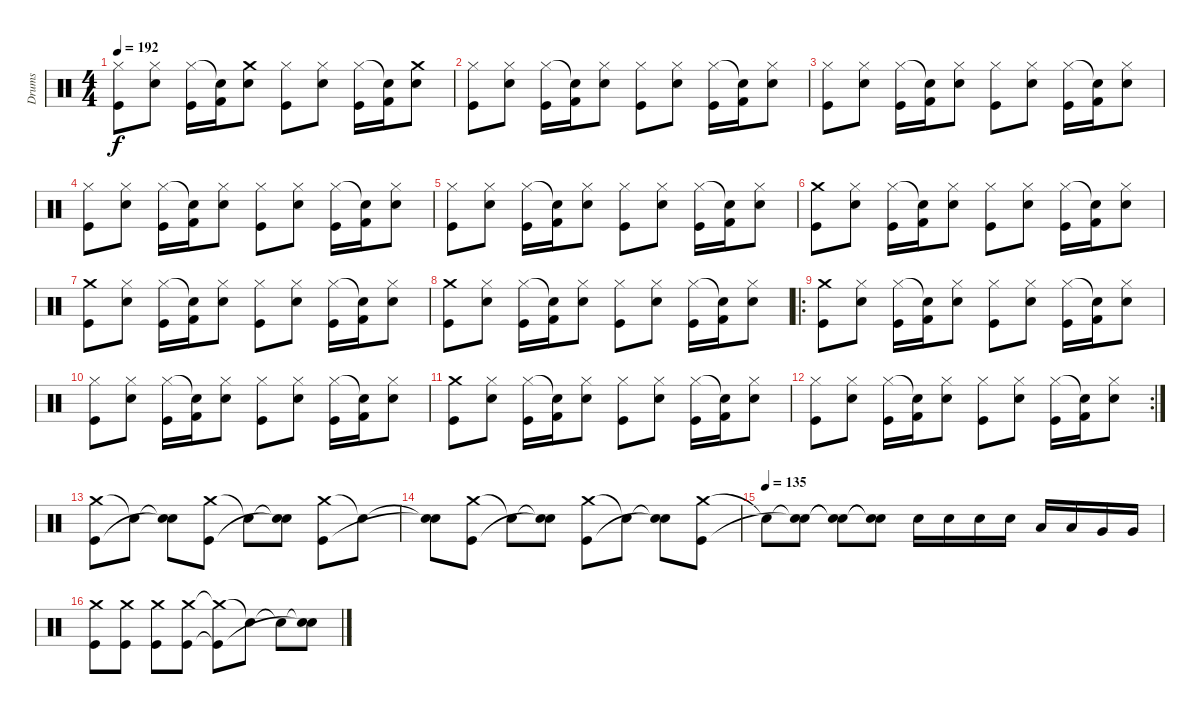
\track ("Drums" "Drums") {instrument percussion}
\staff {score}
\articulation defaults
\ts (4 4)
\tempo 192
\clef neutral
\ks c
("Hi-Hat (closed)" "Kick (hit)").8{dy f} ("Hi-Hat (closed)" "Electric Snare (hit)").8 ("Hi-Hat (closed)" "Kick (hit)").16 ("Snare (hit)"{t} "Kick (hit) 2").16 ("Crash medium (hit)" "Electric Snare (hit)").8 ("Hi-Hat (closed)" "Kick (hit)").8 ("Hi-Hat (closed)" "Electric Snare (hit)").8 ("Hi-Hat (closed)" "Kick (hit)").16 ("Snare (hit)"{t} "Kick (hit) 2").16 ("Crash medium (hit)" "Electric Snare (hit)").8 |
("Hi-Hat (closed)" "Kick (hit)").8 ("Hi-Hat (closed)" "Electric Snare (hit)").8 ("Hi-Hat (closed)" "Kick (hit)").16 ("Snare (hit)"{t} "Kick (hit) 2").16 ("Hi-Hat (closed)" "Electric Snare (hit)").8 ("Hi-Hat (closed)" "Kick (hit)").8 ("Hi-Hat (closed)" "Electric Snare (hit)").8 ("Hi-Hat (closed)" "Kick (hit)").16 ("Snare (hit)"{t} "Kick (hit) 2").16 ("Hi-Hat (closed)" "Electric Snare (hit)").8 |
("Hi-Hat (closed)" "Kick (hit)").8 ("Hi-Hat (closed)" "Electric Snare (hit)").8 ("Hi-Hat (closed)" "Kick (hit)").16 ("Snare (hit)"{t} "Kick (hit) 2").16 ("Hi-Hat (closed)" "Electric Snare (hit)").8 ("Hi-Hat (closed)" "Kick (hit)").8 ("Hi-Hat (closed)" "Electric Snare (hit)").8 ("Hi-Hat (closed)" "Kick (hit)").16 ("Snare (hit)"{t} "Kick (hit) 2").16 ("Hi-Hat (closed)" "Electric Snare (hit)").8 |
("Hi-Hat (closed)" "Kick (hit)").8 ("Hi-Hat (closed)" "Electric Snare (hit)").8 ("Hi-Hat (closed)" "Kick (hit)").16 ("Snare (hit)"{t} "Kick (hit) 2").16 ("Hi-Hat (closed)" "Electric Snare (hit)").8 ("Hi-Hat (closed)" "Kick (hit)").8 ("Hi-Hat (closed)" "Electric Snare (hit)").8 ("Hi-Hat (closed)" "Kick (hit)").16 ("Snare (hit)"{t} "Kick (hit) 2").16 ("Hi-Hat (closed)" "Electric Snare (hit)").8 |
("Hi-Hat (closed)" "Kick (hit)").8 ("Hi-Hat (closed)" "Electric Snare (hit)").8 ("Hi-Hat (closed)" "Kick (hit)").16 ("Snare (hit)"{t} "Kick (hit) 2").16 ("Hi-Hat (closed)" "Electric Snare (hit)").8 ("Hi-Hat (closed)" "Kick (hit)").8 ("Hi-Hat (closed)" "Electric Snare (hit)").8 ("Hi-Hat (closed)" "Kick (hit)").16 ("Snare (hit)"{t} "Kick (hit) 2").16 ("Hi-Hat (closed)" "Electric Snare (hit)").8 |
("Crash medium (hit)" "Kick (hit)").8 ("Hi-Hat (closed)" "Electric Snare (hit)").8 ("Hi-Hat (closed)" "Kick (hit)").16 ("Snare (hit)"{t} "Kick (hit) 2").16 ("Hi-Hat (closed)" "Electric Snare (hit)").8 ("Hi-Hat (closed)" "Kick (hit)").8 ("Hi-Hat (closed)" "Electric Snare (hit)").8 ("Hi-Hat (closed)" "Kick (hit)").16 ("Snare (hit)"{t} "Kick (hit) 2").16 ("Hi-Hat (closed)" "Electric Snare (hit)").8 |
("Crash medium (hit)" "Kick (hit)").8 ("Hi-Hat (closed)" "Electric Snare (hit)").8 ("Hi-Hat (closed)" "Kick (hit)").16 ("Snare (hit)"{t} "Kick (hit) 2").16 ("Hi-Hat (closed)" "Electric Snare (hit)").8 ("Hi-Hat (closed)" "Kick (hit)").8 ("Hi-Hat (closed)" "Electric Snare (hit)").8 ("Hi-Hat (closed)" "Kick (hit)").16 ("Snare (hit)"{t} "Kick (hit) 2").16 ("Hi-Hat (closed)" "Electric Snare (hit)").8 |
("Crash medium (hit)" "Kick (hit)").8 ("Hi-Hat (closed)" "Electric Snare (hit)").8 ("Hi-Hat (closed)" "Kick (hit)").16 ("Snare (hit)"{t} "Kick (hit) 2").16 ("Hi-Hat (closed)" "Electric Snare (hit)").8 ("Hi-Hat (closed)" "Kick (hit)").8 ("Hi-Hat (closed)" "Electric Snare (hit)").8 ("Hi-Hat (closed)" "Kick (hit)").16 ("Snare (hit)"{t} "Kick (hit) 2").16 ("Hi-Hat (closed)" "Electric Snare (hit)").8 |
\ro
("Crash medium (hit)" "Kick (hit)").8 ("Hi-Hat (closed)" "Electric Snare (hit)").8 ("Hi-Hat (closed)" "Kick (hit)").16 ("Snare (hit)"{t} "Kick (hit) 2").16 ("Hi-Hat (closed)" "Electric Snare (hit)").8 ("Hi-Hat (closed)" "Kick (hit)").8 ("Hi-Hat (closed)" "Electric Snare (hit)").8 ("Hi-Hat (closed)" "Kick (hit)").16 ("Snare (hit)"{t} "Kick (hit) 2").16 ("Hi-Hat (closed)" "Electric Snare (hit)").8 |
("Hi-Hat (closed)" "Kick (hit)").8 ("Hi-Hat (closed)" "Electric Snare (hit)").8 ("Hi-Hat (closed)" "Kick (hit)").16 ("Snare (hit)"{t} "Kick (hit) 2").16 ("Hi-Hat (closed)" "Electric Snare (hit)").8 ("Hi-Hat (closed)" "Kick (hit)").8 ("Hi-Hat (closed)" "Electric Snare (hit)").8 ("Hi-Hat (closed)" "Kick (hit)").16 ("Snare (hit)"{t} "Kick (hit) 2").16 ("Hi-Hat (closed)" "Electric Snare (hit)").8 |
("Crash medium (hit)" "Kick (hit)").8 ("Hi-Hat (closed)" "Electric Snare (hit)").8 ("Hi-Hat (closed)" "Kick (hit)").16 ("Snare (hit)"{t} "Kick (hit) 2").16 ("Hi-Hat (closed)" "Electric Snare (hit)").8 ("Hi-Hat (closed)" "Kick (hit)").8 ("Hi-Hat (closed)" "Electric Snare (hit)").8 ("Hi-Hat (closed)" "Kick (hit)").16 ("Snare (hit)"{t} "Kick (hit) 2").16 ("Hi-Hat (closed)" "Electric Snare (hit)").8 |
\rc 2
("Hi-Hat (closed)" "Kick (hit)").8 ("Hi-Hat (closed)" "Electric Snare (hit)").8 ("Hi-Hat (closed)" "Kick (hit)").16 ("Snare (hit)"{t} "Kick (hit) 2").16 ("Hi-Hat (closed)" "Electric Snare (hit)").8 ("Hi-Hat (closed)" "Kick (hit)").8 ("Hi-Hat (closed)" "Electric Snare (hit)").8 ("Hi-Hat (closed)" "Kick (hit)").16 ("Snare (hit)"{t} "Kick (hit) 2").16 ("Hi-Hat (closed)" "Electric Snare (hit)").8 |
("Crash medium (hit)" "Kick (hit)").8 "Snare (hit)"{t}.8 ("Snare (hit)"{t} "Snare (hit)"{t}).8 ("Crash medium (hit)" "Kick (hit)").8 "Snare (hit)"{t}.8 ("Snare (hit)"{t} "Snare (hit)"{t}).8 ("Crash medium (hit)" "Kick (hit)").8 "Snare (hit)"{t}.8 |
("Snare (hit)"{t} "Snare (hit)"{t}).8 ("Crash medium (hit)" "Kick (hit)").8 "Snare (hit)"{t}.8 ("Snare (hit)"{t} "Snare (hit)"{t}).8 ("Crash medium (hit)" "Kick (hit)").8 "Snare (hit)"{t}.8 ("Snare (hit)"{t} "Snare (hit)"{t}).8 ("Crash medium (hit)" "Kick (hit)").8 |
\tempo (135)
"Snare (hit)"{t}.8 ("Snare (hit)"{t} "Snare (hit)"{t}).8 ("Snare (hit)"{t} "Snare (hit)"{t}).8 ("Snare (hit)"{t} "Snare (hit)"{t}).8 "Electric Snare (hit)".16 "Electric Snare (hit)".16 "Electric Snare (hit)".16 "Electric Snare (hit)".16 "Low Tom (hit)".16 "Low Tom (hit)".16 "Very Low Tom (hit)".16 "Very Low Tom (hit)".16 |
("Crash medium (hit)" "Kick (hit)").8 ("Crash medium (hit)" "Kick (hit)").8 ("Crash medium (hit)" "Kick (hit)").8 ("Crash medium (hit)" "Kick (hit)").8 ("Crash medium (hit)"{t} "Kick (hit)"{t}).8 "Snare (hit)"{t}.8 "Snare (hit)"{t}.8 ("Snare (hit)"{t} "Snare (hit)"{t}).8
